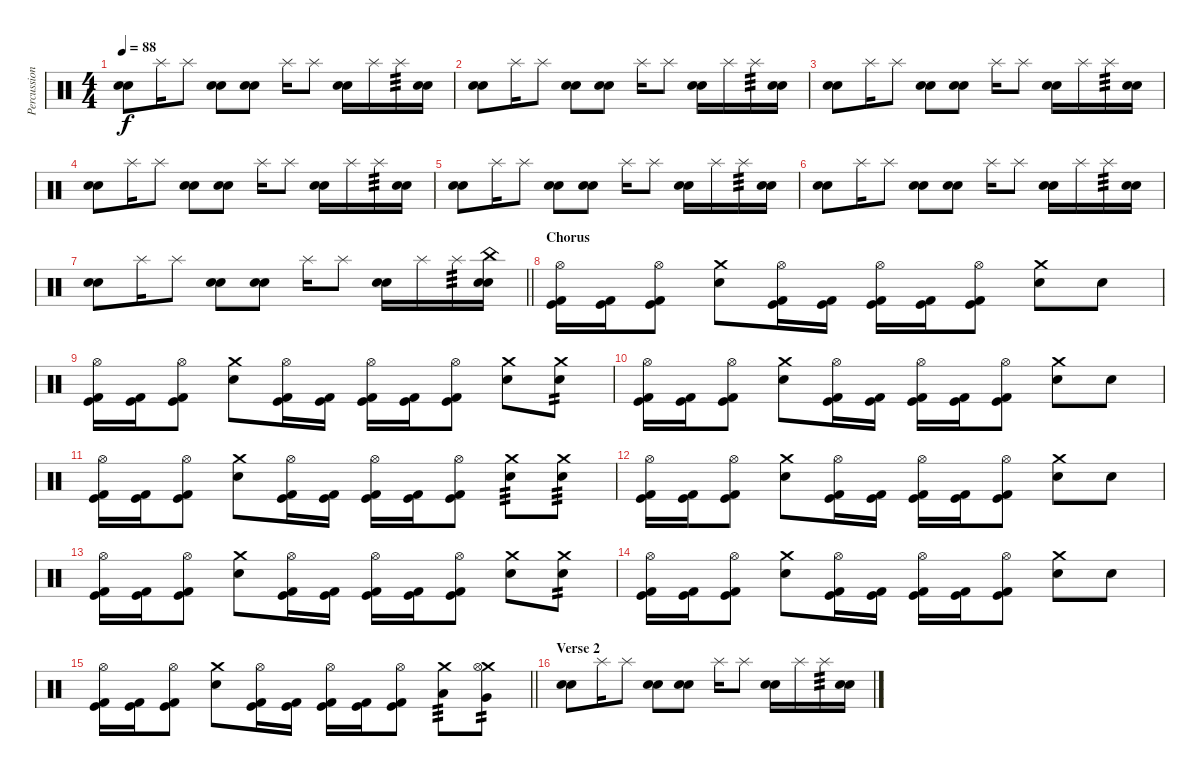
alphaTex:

\track ("Percussion" "Percussion") {instrument percussion}
\staff {score}
\articulation defaults
\ts (4 4)
\tempo 88
\clef neutral
\ks c
("Electric Snare (hit)" "Snare (hit) 2").8{dy f} "Splash (hit)".16 "Splash (hit)".8 ("Electric Snare (hit)" "Snare (hit) 2").8 ("Electric Snare (hit)" "Snare (hit) 2").8 "Splash (hit)".16 "Splash (hit)".8 ("Electric Snare (hit)" "Snare (hit) 2").16 "Splash (hit)".16 "Splash (hit)".16{tp 3} ("Electric Snare (hit)" "Snare (hit) 2").16 |
("Electric Snare (hit)" "Snare (hit) 2").8 "Splash (hit)".16 "Splash (hit)".8 ("Electric Snare (hit)" "Snare (hit) 2").8 ("Electric Snare (hit)" "Snare (hit) 2").8 "Splash (hit)".16 "Splash (hit)".8 ("Electric Snare (hit)" "Snare (hit) 2").16 "Splash (hit)".16 "Splash (hit)".16{tp 3} ("Electric Snare (hit)" "Snare (hit) 2").16 |
("Electric Snare (hit)" "Snare (hit) 2").8 "Splash (hit)".16 "Splash (hit)".8 ("Electric Snare (hit)" "Snare (hit) 2").8 ("Electric Snare (hit)" "Snare (hit) 2").8 "Splash (hit)".16 "Splash (hit)".8 ("Electric Snare (hit)" "Snare (hit) 2").16 "Splash (hit)".16 "Splash (hit)".16{tp 3} ("Electric Snare (hit)" "Snare (hit) 2").16 |
("Electric Snare (hit)" "Snare (hit) 2").8 "Splash (hit)".16 "Splash (hit)".8 ("Electric Snare (hit)" "Snare (hit) 2").8 ("Electric Snare (hit)" "Snare (hit) 2").8 "Splash (hit)".16 "Splash (hit)".8 ("Electric Snare (hit)" "Snare (hit) 2").16 "Splash (hit)".16 "Splash (hit)".16{tp 3} ("Electric Snare (hit)" "Snare (hit) 2").16 |
("Electric Snare (hit)" "Snare (hit) 2").8 "Splash (hit)".16 "Splash (hit)".8 ("Electric Snare (hit)" "Snare (hit) 2").8 ("Electric Snare (hit)" "Snare (hit) 2").8 "Splash (hit)".16 "Splash (hit)".8 ("Electric Snare (hit)" "Snare (hit) 2").16 "Splash (hit)".16 "Splash (hit)".16{tp 3} ("Electric Snare (hit)" "Snare (hit) 2").16 |
("Electric Snare (hit)" "Snare (hit) 2").8 "Splash (hit)".16 "Splash (hit)".8 ("Electric Snare (hit)" "Snare (hit) 2").8 ("Electric Snare (hit)" "Snare (hit) 2").8 "Splash (hit)".16 "Splash (hit)".8 ("Electric Snare (hit)" "Snare (hit) 2").16 "Splash (hit)".16 "Splash (hit)".16{tp 3} ("Electric Snare (hit)" "Snare (hit) 2").16 |
\barLineRight lightlight
("Electric Snare (hit)" "Snare (hit) 2").8 "Splash (hit)".16 "Splash (hit)".8 ("Electric Snare (hit)" "Snare (hit) 2").8 ("Electric Snare (hit)" "Snare (hit) 2").8 "Splash (hit)".16 "Splash (hit)".8 ("Electric Snare (hit)" "Snare (hit) 2").16 "Splash (hit)".16 "Splash (hit)".16{tp 3} ("Electric Snare (hit)" "China (hit)" "Snare (hit) 2").16 |
\section ("" "Chorus")
("Kick (hit) 2" "Kick (hit)" "Hi-Hat (open)").16 ("Kick (hit) 2" "Kick (hit)").16 ("Kick (hit) 2" "Kick (hit)" "Hi-Hat (open)").8 ("Electric Snare (hit)" "Crash medium (hit)").8 ("Kick (hit) 2" "Kick (hit)" "Hi-Hat (open)").16 ("Kick (hit) 2" "Kick (hit)").16 ("Kick (hit) 2" "Kick (hit)" "Hi-Hat (open)").16 ("Kick (hit) 2" "Kick (hit)").16 ("Kick (hit) 2" "Kick (hit)" "Hi-Hat (open)").8 ("Electric Snare (hit)" "Crash medium (hit)").8 "Electric Snare (hit)".8 |
("Kick (hit) 2" "Kick (hit)" "Hi-Hat (open)").16 ("Kick (hit) 2" "Kick (hit)").16 ("Kick (hit) 2" "Kick (hit)" "Hi-Hat (open)").8 ("Electric Snare (hit)" "Crash medium (hit)").8 ("Kick (hit) 2" "Kick (hit)" "Hi-Hat (open)").16 ("Kick (hit) 2" "Kick (hit)").16 ("Kick (hit) 2" "Kick (hit)" "Hi-Hat (open)").16 ("Kick (hit) 2" "Kick (hit)").16 ("Kick (hit) 2" "Kick (hit)" "Hi-Hat (open)").8 ("Electric Snare (hit)" "Crash medium (hit)").8 ("Electric Snare (hit)" "Crash medium (hit)").8{tp 2} |
("Kick (hit) 2" "Kick (hit)" "Hi-Hat (open)").16 ("Kick (hit) 2" "Kick (hit)").16 ("Kick (hit) 2" "Kick (hit)" "Hi-Hat (open)").8 ("Electric Snare (hit)" "Crash medium (hit)").8 ("Kick (hit) 2" "Kick (hit)" "Hi-Hat (open)").16 ("Kick (hit) 2" "Kick (hit)").16 ("Kick (hit) 2" "Kick (hit)" "Hi-Hat (open)").16 ("Kick (hit) 2" "Kick (hit)").16 ("Kick (hit) 2" "Kick (hit)" "Hi-Hat (open)").8 ("Electric Snare (hit)" "Crash medium (hit)").8 "Electric Snare (hit)".8 |
("Kick (hit) 2" "Kick (hit)" "Hi-Hat (open)").16 ("Kick (hit) 2" "Kick (hit)").16 ("Kick (hit) 2" "Kick (hit)" "Hi-Hat (open)").8 ("Electric Snare (hit)" "Crash medium (hit)").8 ("Kick (hit) 2" "Kick (hit)" "Hi-Hat (open)").16 ("Kick (hit) 2" "Kick (hit)").16 ("Kick (hit) 2" "Kick (hit)" "Hi-Hat (open)").16 ("Kick (hit) 2" "Kick (hit)").16 ("Kick (hit) 2" "Kick (hit)" "Hi-Hat (open)").8 ("Electric Snare (hit)" "Crash medium (hit)").8{tp 3} ("Electric Snare (hit)" "Crash medium (hit)").8{tp 3} |
("Kick (hit) 2" "Kick (hit)" "Hi-Hat (open)").16 ("Kick (hit) 2" "Kick (hit)").16 ("Kick (hit) 2" "Kick (hit)" "Hi-Hat (open)").8 ("Electric Snare (hit)" "Crash medium (hit)").8 ("Kick (hit) 2" "Kick (hit)" "Hi-Hat (open)").16 ("Kick (hit) 2" "Kick (hit)").16 ("Kick (hit) 2" "Kick (hit)" "Hi-Hat (open)").16 ("Kick (hit) 2" "Kick (hit)").16 ("Kick (hit) 2" "Kick (hit)" "Hi-Hat (open)").8 ("Electric Snare (hit)" "Crash medium (hit)").8 "Electric Snare (hit)".8 |
("Kick (hit) 2" "Kick (hit)" "Hi-Hat (open)").16 ("Kick (hit) 2" "Kick (hit)").16 ("Kick (hit) 2" "Kick (hit)" "Hi-Hat (open)").8 ("Electric Snare (hit)" "Crash medium (hit)").8 ("Kick (hit) 2" "Kick (hit)" "Hi-Hat (open)").16 ("Kick (hit) 2" "Kick (hit)").16 ("Kick (hit) 2" "Kick (hit)" "Hi-Hat (open)").16 ("Kick (hit) 2" "Kick (hit)").16 ("Kick (hit) 2" "Kick (hit)" "Hi-Hat (open)").8 ("Electric Snare (hit)" "Crash medium (hit)").8 ("Electric Snare (hit)" "Crash medium (hit)").8{tp 2} |
("Kick (hit) 2" "Kick (hit)" "Hi-Hat (open)").16 ("Kick (hit) 2" "Kick (hit)").16 ("Kick (hit) 2" "Kick (hit)" "Hi-Hat (open)").8 ("Electric Snare (hit)" "Crash medium (hit)").8 ("Kick (hit) 2" "Kick (hit)" "Hi-Hat (open)").16 ("Kick (hit) 2" "Kick (hit)").16 ("Kick (hit) 2" "Kick (hit)" "Hi-Hat (open)").16 ("Kick (hit) 2" "Kick (hit)").16 ("Kick (hit) 2" "Kick (hit)" "Hi-Hat (open)").8 ("Electric Snare (hit)" "Crash medium (hit)").8 "Electric Snare (hit)".8 |
\barLineRight lightlight
("Kick (hit) 2" "Kick (hit)" "Hi-Hat (open)").16 ("Kick (hit) 2" "Kick (hit)").16 ("Kick (hit) 2" "Kick (hit)" "Hi-Hat (open)").8 ("Electric Snare (hit)" "Crash medium (hit)").8 ("Kick (hit) 2" "Kick (hit)" "Hi-Hat (open)").16 ("Kick (hit) 2" "Kick (hit)").16 ("Kick (hit) 2" "Kick (hit)" "Hi-Hat (open)").16 ("Kick (hit) 2" "Kick (hit)").16 ("Kick (hit) 2" "Kick (hit)" "Hi-Hat (open)").8 ("Low Tom (hit)" "Crash medium (hit)").8{tp 3} ("Very Low Tom (hit)" "Crash medium (hit)" "Hi-Hat (open)").8{tp 2} |
\section ("" "Verse 2")
("Electric Snare (hit)" "Snare (hit) 2").8 "Splash (hit)".16 "Splash (hit)".8 ("Electric Snare (hit)" "Snare (hit) 2").8 ("Electric Snare (hit)" "Snare (hit) 2").8 "Splash (hit)".16 "Splash (hit)".8 ("Electric Snare (hit)" "Snare (hit) 2").16 "Splash (hit)".16 "Splash (hit)".16{tp 3} ("Electric Snare (hit)" "Snare (hit) 2").16
